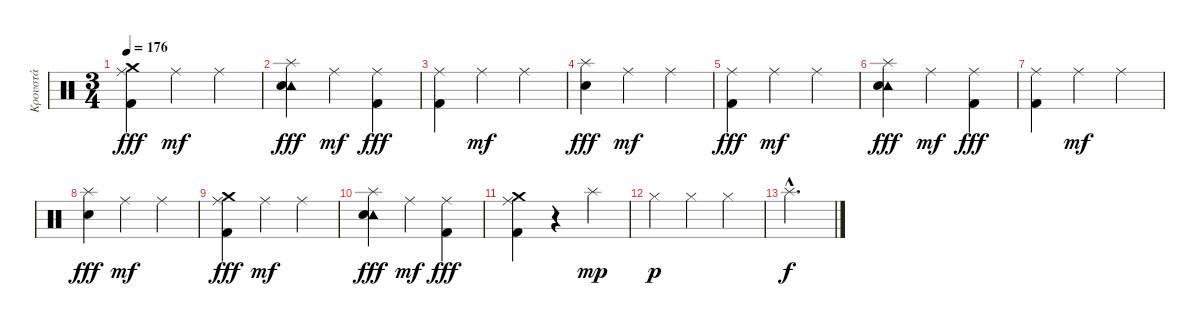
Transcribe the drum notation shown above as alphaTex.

\track ("Κρουστά" "Κρουστά") {instrument percussion}
\staff {score}
\articulation defaults
\ts (3 4)
\tempo 176
\clef neutral
\ks c
("Crash medium (hit)" "Ride (middle)" "Kick (hit) 2").4{dy fff} "Ride (middle)".4{dy mf} "Ride (middle)".4 |
("Splash (hit)" "Tambourine (hit)" "Snare (hit) 2").4{dy fff} "Ride (middle)".4{dy mf} ("Ride (middle)" "Kick (hit) 2").4{dy fff} |
("Ride (middle)" "Kick (hit) 2").4 "Ride (middle)".4{dy mf} "Ride (middle)".4 |
("Splash (hit)" "Snare (hit) 2").4{dy fff} "Ride (middle)".4{dy mf} "Ride (middle)".4 |
("Ride (middle)" "Kick (hit) 2").4{dy fff} "Ride (middle)".4{dy mf} "Ride (middle)".4 |
("Splash (hit)" "Tambourine (hit)" "Snare (hit) 2").4{dy fff} "Ride (middle)".4{dy mf} ("Ride (middle)" "Kick (hit) 2").4{dy fff} |
("Ride (middle)" "Kick (hit) 2").4 "Ride (middle)".4{dy mf} "Ride (middle)".4 |
("Splash (hit)" "Snare (hit) 2").4{dy fff} "Ride (middle)".4{dy mf} "Ride (middle)".4 |
("Crash medium (hit)" "Ride (middle)" "Kick (hit) 2").4{dy fff} "Ride (middle)".4{dy mf} "Ride (middle)".4 |
("Splash (hit)" "Tambourine (hit)" "Snare (hit) 2").4{dy fff} "Ride (middle)".4{dy mf} ("Ride (middle)" "Kick (hit) 2").4{dy fff} |
("Crash medium (hit)" "Ride (middle)" "Kick (hit) 2").4 r.4 "Splash (hit)".4{dy mp} |
"Hi-Hat (closed)".4{dy p} "Hi-Hat (closed)".4 "Hi-Hat (closed)".4 |
"Splash (hit)"{hac}.2{d dy f}
